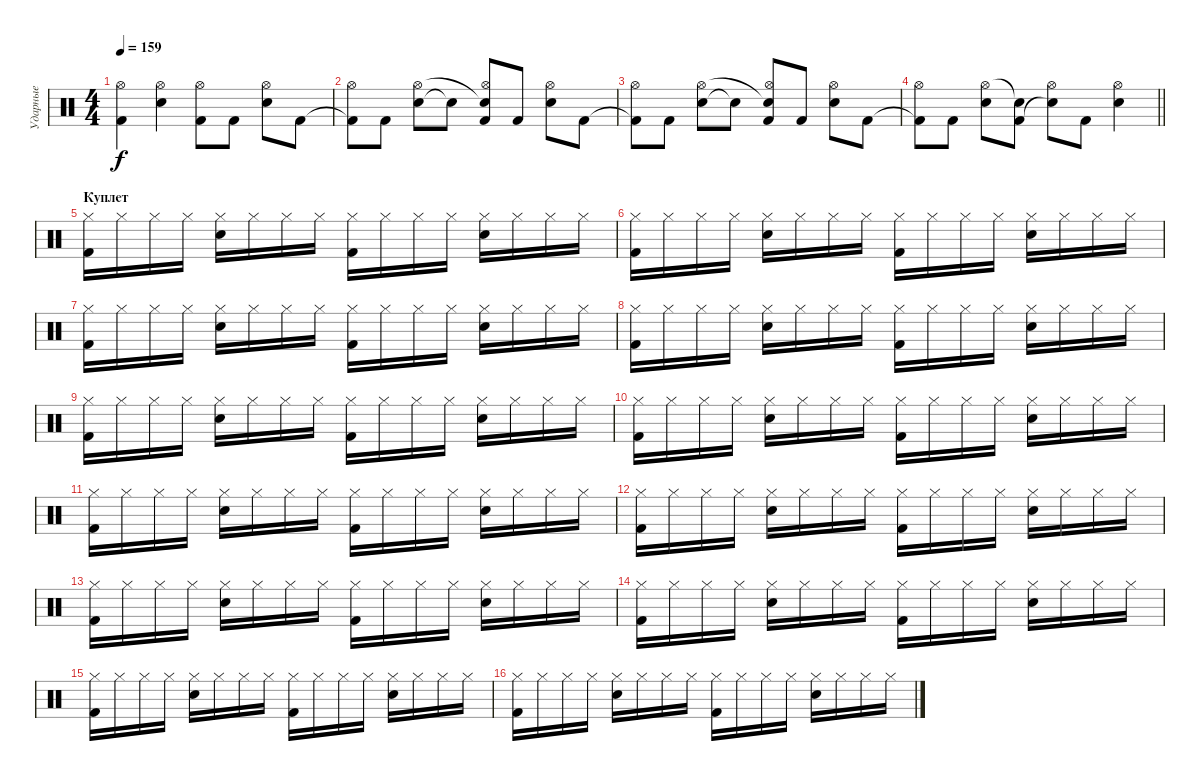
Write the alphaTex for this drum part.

\track ("Ударные" "Ударные") {instrument percussion}
\staff {score}
\articulation defaults
\ts (4 4)
\tempo 159
\clef neutral
\ks c
("Kick (hit) 2" "Hi-Hat (open)").4{dy f} ("Snare (hit) 2" "Hi-Hat (open)").4 ("Kick (hit) 2" "Hi-Hat (open)").8 "Kick (hit) 2".8 ("Snare (hit) 2" "Hi-Hat (open)").8 "Kick (hit) 2".8 |
("Kick (hit) 2"{t} "Hi-Hat (open)").8 "Kick (hit) 2".8 ("Snare (hit) 2" "Hi-Hat (open)").8 "Snare (hit) 2"{t}.8 ("Kick (hit) 2" "Snare (hit) 2"{t} "Hi-Hat (open)").8 "Kick (hit) 2".8 ("Snare (hit) 2" "Hi-Hat (open)").8 "Kick (hit) 2".8 |
("Kick (hit) 2"{t} "Hi-Hat (open)").8 "Kick (hit) 2".8 ("Snare (hit) 2" "Hi-Hat (open)").8 "Snare (hit) 2"{t}.8 ("Kick (hit) 2" "Snare (hit) 2"{t} "Hi-Hat (open)").8 "Kick (hit) 2".8 ("Snare (hit) 2" "Hi-Hat (open)").8 "Kick (hit) 2".8 |
\barLineRight lightlight
("Kick (hit) 2"{t} "Hi-Hat (open)").8 "Kick (hit) 2".8 ("Snare (hit) 2" "Hi-Hat (open)").8 ("Kick (hit) 2" "Snare (hit) 2"{t}).8 ("Snare (hit) 2"{t} "Hi-Hat (open)").8 "Kick (hit) 2".8 ("Snare (hit) 2" "Hi-Hat (open)").4 |
\section ("" "Куплет")
("Kick (hit) 2" "Hi-Hat (closed)").16 "Hi-Hat (closed)".16 "Hi-Hat (closed)".16 "Hi-Hat (closed)".16 ("Snare (hit) 2" "Hi-Hat (closed)").16 "Hi-Hat (closed)".16 "Hi-Hat (closed)".16 "Hi-Hat (closed)".16 ("Kick (hit) 2" "Hi-Hat (closed)").16 "Hi-Hat (closed)".16 "Hi-Hat (closed)".16 "Hi-Hat (closed)".16 ("Snare (hit) 2" "Hi-Hat (closed)").16 "Hi-Hat (closed)".16 "Hi-Hat (closed)".16 "Hi-Hat (closed)".16 |
("Kick (hit) 2" "Hi-Hat (closed)").16 "Hi-Hat (closed)".16 "Hi-Hat (closed)".16 "Hi-Hat (closed)".16 ("Snare (hit) 2" "Hi-Hat (closed)").16 "Hi-Hat (closed)".16 "Hi-Hat (closed)".16 "Hi-Hat (closed)".16 ("Kick (hit) 2" "Hi-Hat (closed)").16 "Hi-Hat (closed)".16 "Hi-Hat (closed)".16 "Hi-Hat (closed)".16 ("Snare (hit) 2" "Hi-Hat (closed)").16 "Hi-Hat (closed)".16 "Hi-Hat (closed)".16 "Hi-Hat (closed)".16 |
("Kick (hit) 2" "Hi-Hat (closed)").16 "Hi-Hat (closed)".16 "Hi-Hat (closed)".16 "Hi-Hat (closed)".16 ("Snare (hit) 2" "Hi-Hat (closed)").16 "Hi-Hat (closed)".16 "Hi-Hat (closed)".16 "Hi-Hat (closed)".16 ("Kick (hit) 2" "Hi-Hat (closed)").16 "Hi-Hat (closed)".16 "Hi-Hat (closed)".16 "Hi-Hat (closed)".16 ("Snare (hit) 2" "Hi-Hat (closed)").16 "Hi-Hat (closed)".16 "Hi-Hat (closed)".16 "Hi-Hat (closed)".16 |
("Kick (hit) 2" "Hi-Hat (closed)").16 "Hi-Hat (closed)".16 "Hi-Hat (closed)".16 "Hi-Hat (closed)".16 ("Snare (hit) 2" "Hi-Hat (closed)").16 "Hi-Hat (closed)".16 "Hi-Hat (closed)".16 "Hi-Hat (closed)".16 ("Kick (hit) 2" "Hi-Hat (closed)").16 "Hi-Hat (closed)".16 "Hi-Hat (closed)".16 "Hi-Hat (closed)".16 ("Snare (hit) 2" "Hi-Hat (closed)").16 "Hi-Hat (closed)".16 "Hi-Hat (closed)".16 "Hi-Hat (closed)".16 |
("Kick (hit) 2" "Hi-Hat (closed)").16 "Hi-Hat (closed)".16 "Hi-Hat (closed)".16 "Hi-Hat (closed)".16 ("Snare (hit) 2" "Hi-Hat (closed)").16 "Hi-Hat (closed)".16 "Hi-Hat (closed)".16 "Hi-Hat (closed)".16 ("Kick (hit) 2" "Hi-Hat (closed)").16 "Hi-Hat (closed)".16 "Hi-Hat (closed)".16 "Hi-Hat (closed)".16 ("Snare (hit) 2" "Hi-Hat (closed)").16 "Hi-Hat (closed)".16 "Hi-Hat (closed)".16 "Hi-Hat (closed)".16 |
("Kick (hit) 2" "Hi-Hat (closed)").16 "Hi-Hat (closed)".16 "Hi-Hat (closed)".16 "Hi-Hat (closed)".16 ("Snare (hit) 2" "Hi-Hat (closed)").16 "Hi-Hat (closed)".16 "Hi-Hat (closed)".16 "Hi-Hat (closed)".16 ("Kick (hit) 2" "Hi-Hat (closed)").16 "Hi-Hat (closed)".16 "Hi-Hat (closed)".16 "Hi-Hat (closed)".16 ("Snare (hit) 2" "Hi-Hat (closed)").16 "Hi-Hat (closed)".16 "Hi-Hat (closed)".16 "Hi-Hat (closed)".16 |
("Kick (hit) 2" "Hi-Hat (closed)").16 "Hi-Hat (closed)".16 "Hi-Hat (closed)".16 "Hi-Hat (closed)".16 ("Snare (hit) 2" "Hi-Hat (closed)").16 "Hi-Hat (closed)".16 "Hi-Hat (closed)".16 "Hi-Hat (closed)".16 ("Kick (hit) 2" "Hi-Hat (closed)").16 "Hi-Hat (closed)".16 "Hi-Hat (closed)".16 "Hi-Hat (closed)".16 ("Snare (hit) 2" "Hi-Hat (closed)").16 "Hi-Hat (closed)".16 "Hi-Hat (closed)".16 "Hi-Hat (closed)".16 |
("Kick (hit) 2" "Hi-Hat (closed)").16 "Hi-Hat (closed)".16 "Hi-Hat (closed)".16 "Hi-Hat (closed)".16 ("Snare (hit) 2" "Hi-Hat (closed)").16 "Hi-Hat (closed)".16 "Hi-Hat (closed)".16 "Hi-Hat (closed)".16 ("Kick (hit) 2" "Hi-Hat (closed)").16 "Hi-Hat (closed)".16 "Hi-Hat (closed)".16 "Hi-Hat (closed)".16 ("Snare (hit) 2" "Hi-Hat (closed)").16 "Hi-Hat (closed)".16 "Hi-Hat (closed)".16 "Hi-Hat (closed)".16 |
("Kick (hit) 2" "Hi-Hat (closed)").16 "Hi-Hat (closed)".16 "Hi-Hat (closed)".16 "Hi-Hat (closed)".16 ("Snare (hit) 2" "Hi-Hat (closed)").16 "Hi-Hat (closed)".16 "Hi-Hat (closed)".16 "Hi-Hat (closed)".16 ("Kick (hit) 2" "Hi-Hat (closed)").16 "Hi-Hat (closed)".16 "Hi-Hat (closed)".16 "Hi-Hat (closed)".16 ("Snare (hit) 2" "Hi-Hat (closed)").16 "Hi-Hat (closed)".16 "Hi-Hat (closed)".16 "Hi-Hat (closed)".16 |
("Kick (hit) 2" "Hi-Hat (closed)").16 "Hi-Hat (closed)".16 "Hi-Hat (closed)".16 "Hi-Hat (closed)".16 ("Snare (hit) 2" "Hi-Hat (closed)").16 "Hi-Hat (closed)".16 "Hi-Hat (closed)".16 "Hi-Hat (closed)".16 ("Kick (hit) 2" "Hi-Hat (closed)").16 "Hi-Hat (closed)".16 "Hi-Hat (closed)".16 "Hi-Hat (closed)".16 ("Snare (hit) 2" "Hi-Hat (closed)").16 "Hi-Hat (closed)".16 "Hi-Hat (closed)".16 "Hi-Hat (closed)".16 |
("Kick (hit) 2" "Hi-Hat (closed)").16 "Hi-Hat (closed)".16 "Hi-Hat (closed)".16 "Hi-Hat (closed)".16 ("Snare (hit) 2" "Hi-Hat (closed)").16 "Hi-Hat (closed)".16 "Hi-Hat (closed)".16 "Hi-Hat (closed)".16 ("Kick (hit) 2" "Hi-Hat (closed)").16 "Hi-Hat (closed)".16 "Hi-Hat (closed)".16 "Hi-Hat (closed)".16 ("Snare (hit) 2" "Hi-Hat (closed)").16 "Hi-Hat (closed)".16 "Hi-Hat (closed)".16 "Hi-Hat (closed)".16 |
("Kick (hit) 2" "Hi-Hat (closed)").16 "Hi-Hat (closed)".16 "Hi-Hat (closed)".16 "Hi-Hat (closed)".16 ("Snare (hit) 2" "Hi-Hat (closed)").16 "Hi-Hat (closed)".16 "Hi-Hat (closed)".16 "Hi-Hat (closed)".16 ("Kick (hit) 2" "Hi-Hat (closed)").16 "Hi-Hat (closed)".16 "Hi-Hat (closed)".16 "Hi-Hat (closed)".16 ("Snare (hit) 2" "Hi-Hat (closed)").16 "Hi-Hat (closed)".16 "Hi-Hat (closed)".16 "Hi-Hat (closed)".16
